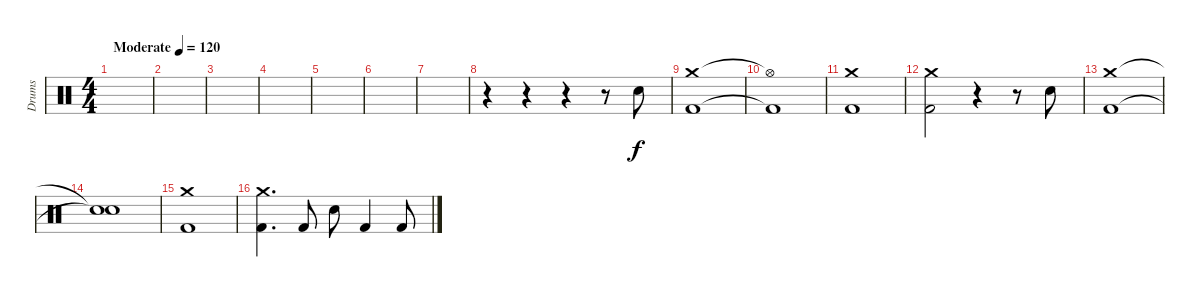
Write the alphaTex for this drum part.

\track ("Drums" "Drums") {instrument percussion}
\staff {score}
\articulation defaults
\ts (4 4)
\tempo (120 "Moderate")
\clef neutral
\ks c
|
|
|
|
|
|
|
r.4 r.4 r.4 r.8 "Snare (hit) 2".8 |
("Crash medium (hit)" "Kick (hit) 2").1 |
("Hi-Hat (open)"{t} "Kick (hit) 2"{t}).1 |
("Crash medium (hit)" "Kick (hit) 2").1 |
("Crash medium (hit)" "Kick (hit) 2").2 r.4 r.8 "Snare (hit) 2".8 |
("Crash medium (hit)" "Kick (hit) 2").1 |
("Snare (hit)"{t} "Snare (hit)"{t}).1 |
("Crash medium (hit)" "Kick (hit) 2").1 |
("Crash medium (hit)" "Kick (hit) 2").4{d} "Kick (hit) 2".8 "Snare (hit) 2".8 "Kick (hit) 2".4 "Kick (hit) 2".8
